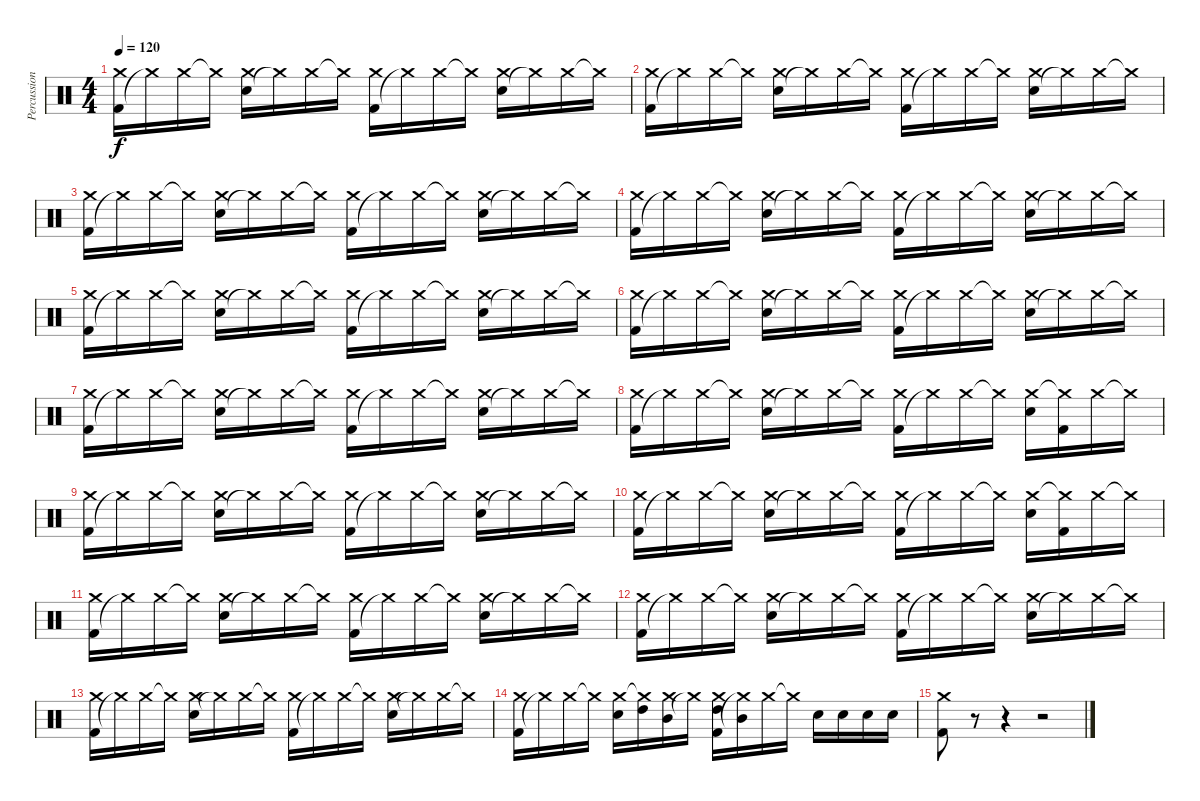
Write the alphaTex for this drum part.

\track ("Percussions" "Percussion") {instrument percussion}
\staff {score}
\articulation defaults
\ts (4 4)
\tempo 120
\clef neutral
\ks c
("Kick (hit) 2" "Crash medium (hit)").16{dy f} "Crash medium (hit)"{t}.16 "Crash medium (hit)".16 "Crash medium (hit)"{t}.16 ("Electric Snare (hit)" "Crash medium (hit)").16 "Crash medium (hit)"{t}.16 "Crash medium (hit)".16 "Crash medium (hit)"{t}.16 ("Kick (hit) 2" "Crash medium (hit)").16 "Crash medium (hit)"{t}.16 "Crash medium (hit)".16 "Crash medium (hit)"{t}.16 ("Electric Snare (hit)" "Crash medium (hit)").16 "Crash medium (hit)"{t}.16 "Crash medium (hit)".16 "Crash medium (hit)"{t}.16 |
("Kick (hit) 2" "Crash medium (hit)").16 "Crash medium (hit)"{t}.16 "Crash medium (hit)".16 "Crash medium (hit)"{t}.16 ("Electric Snare (hit)" "Crash medium (hit)").16 "Crash medium (hit)"{t}.16 "Crash medium (hit)".16 "Crash medium (hit)"{t}.16 ("Kick (hit) 2" "Crash medium (hit)").16 "Crash medium (hit)"{t}.16 "Crash medium (hit)".16 "Crash medium (hit)"{t}.16 ("Electric Snare (hit)" "Crash medium (hit)").16 "Crash medium (hit)"{t}.16 "Crash medium (hit)".16 "Crash medium (hit)"{t}.16 |
("Kick (hit) 2" "Crash medium (hit)").16 "Crash medium (hit)"{t}.16 "Crash medium (hit)".16 "Crash medium (hit)"{t}.16 ("Electric Snare (hit)" "Crash medium (hit)").16 "Crash medium (hit)"{t}.16 "Crash medium (hit)".16 "Crash medium (hit)"{t}.16 ("Kick (hit) 2" "Crash medium (hit)").16 "Crash medium (hit)"{t}.16 "Crash medium (hit)".16 "Crash medium (hit)"{t}.16 ("Electric Snare (hit)" "Crash medium (hit)").16 "Crash medium (hit)"{t}.16 "Crash medium (hit)".16 "Crash medium (hit)"{t}.16 |
("Kick (hit) 2" "Crash medium (hit)").16 "Crash medium (hit)"{t}.16 "Crash medium (hit)".16 "Crash medium (hit)"{t}.16 ("Electric Snare (hit)" "Crash medium (hit)").16 "Crash medium (hit)"{t}.16 "Crash medium (hit)".16 "Crash medium (hit)"{t}.16 ("Kick (hit) 2" "Crash medium (hit)").16 "Crash medium (hit)"{t}.16 "Crash medium (hit)".16 "Crash medium (hit)"{t}.16 ("Electric Snare (hit)" "Crash medium (hit)").16 "Crash medium (hit)"{t}.16 "Crash medium (hit)".16 "Crash medium (hit)"{t}.16 |
("Kick (hit) 2" "Crash medium (hit)").16 "Crash medium (hit)"{t}.16 "Crash medium (hit)".16 "Crash medium (hit)"{t}.16 ("Electric Snare (hit)" "Crash medium (hit)").16 "Crash medium (hit)"{t}.16 "Crash medium (hit)".16 "Crash medium (hit)"{t}.16 ("Kick (hit) 2" "Crash medium (hit)").16 "Crash medium (hit)"{t}.16 "Crash medium (hit)".16 "Crash medium (hit)"{t}.16 ("Electric Snare (hit)" "Crash medium (hit)").16 "Crash medium (hit)"{t}.16 "Crash medium (hit)".16 "Crash medium (hit)"{t}.16 |
("Kick (hit) 2" "Crash medium (hit)").16 "Crash medium (hit)"{t}.16 "Crash medium (hit)".16 "Crash medium (hit)"{t}.16 ("Electric Snare (hit)" "Crash medium (hit)").16 "Crash medium (hit)"{t}.16 "Crash medium (hit)".16 "Crash medium (hit)"{t}.16 ("Kick (hit) 2" "Crash medium (hit)").16 "Crash medium (hit)"{t}.16 "Crash medium (hit)".16 "Crash medium (hit)"{t}.16 ("Electric Snare (hit)" "Crash medium (hit)").16 "Crash medium (hit)"{t}.16 "Crash medium (hit)".16 "Crash medium (hit)"{t}.16 |
("Kick (hit) 2" "Crash medium (hit)").16 "Crash medium (hit)"{t}.16 "Crash medium (hit)".16 "Crash medium (hit)"{t}.16 ("Electric Snare (hit)" "Crash medium (hit)").16 "Crash medium (hit)"{t}.16 "Crash medium (hit)".16 "Crash medium (hit)"{t}.16 ("Kick (hit) 2" "Crash medium (hit)").16 "Crash medium (hit)"{t}.16 "Crash medium (hit)".16 "Crash medium (hit)"{t}.16 ("Electric Snare (hit)" "Crash medium (hit)").16 "Crash medium (hit)"{t}.16 "Crash medium (hit)".16 "Crash medium (hit)"{t}.16 |
("Kick (hit) 2" "Crash medium (hit)").16 "Crash medium (hit)"{t}.16 "Crash medium (hit)".16 "Crash medium (hit)"{t}.16 ("Electric Snare (hit)" "Crash medium (hit)").16 "Crash medium (hit)"{t}.16 "Crash medium (hit)".16 "Crash medium (hit)"{t}.16 ("Kick (hit) 2" "Crash medium (hit)").16 "Crash medium (hit)"{t}.16 "Crash medium (hit)".16 "Crash medium (hit)"{t}.16 ("Electric Snare (hit)" "Crash medium (hit)").16 ("Kick (hit) 2" "Crash medium (hit)"{t}).16 "Crash medium (hit)".16 "Crash medium (hit)"{t}.16 |
("Kick (hit) 2" "Crash medium (hit)").16 "Crash medium (hit)"{t}.16 "Crash medium (hit)".16 "Crash medium (hit)"{t}.16 ("Electric Snare (hit)" "Crash medium (hit)").16 "Crash medium (hit)"{t}.16 "Crash medium (hit)".16 "Crash medium (hit)"{t}.16 ("Kick (hit) 2" "Crash medium (hit)").16 "Crash medium (hit)"{t}.16 "Crash medium (hit)".16 "Crash medium (hit)"{t}.16 ("Electric Snare (hit)" "Crash medium (hit)").16 "Crash medium (hit)"{t}.16 "Crash medium (hit)".16 "Crash medium (hit)"{t}.16 |
("Kick (hit) 2" "Crash medium (hit)").16 "Crash medium (hit)"{t}.16 "Crash medium (hit)".16 "Crash medium (hit)"{t}.16 ("Electric Snare (hit)" "Crash medium (hit)").16 "Crash medium (hit)"{t}.16 "Crash medium (hit)".16 "Crash medium (hit)"{t}.16 ("Kick (hit) 2" "Crash medium (hit)").16 "Crash medium (hit)"{t}.16 "Crash medium (hit)".16 "Crash medium (hit)"{t}.16 ("Electric Snare (hit)" "Crash medium (hit)").16 ("Kick (hit) 2" "Crash medium (hit)"{t}).16 "Crash medium (hit)".16 "Crash medium (hit)"{t}.16 |
("Kick (hit) 2" "Crash medium (hit)").16 "Crash medium (hit)"{t}.16 "Crash medium (hit)".16 "Crash medium (hit)"{t}.16 ("Electric Snare (hit)" "Crash medium (hit)").16 "Crash medium (hit)"{t}.16 "Crash medium (hit)".16 "Crash medium (hit)"{t}.16 ("Kick (hit) 2" "Crash medium (hit)").16 "Crash medium (hit)"{t}.16 "Crash medium (hit)".16 "Crash medium (hit)"{t}.16 ("Electric Snare (hit)" "Crash medium (hit)").16 "Crash medium (hit)"{t}.16 "Crash medium (hit)".16 "Crash medium (hit)"{t}.16 |
("Kick (hit) 2" "Crash medium (hit)").16 "Crash medium (hit)"{t}.16 "Crash medium (hit)".16 "Crash medium (hit)"{t}.16 ("Electric Snare (hit)" "Crash medium (hit)").16 "Crash medium (hit)"{t}.16 "Crash medium (hit)".16 "Crash medium (hit)"{t}.16 ("Kick (hit) 2" "Crash medium (hit)").16 "Crash medium (hit)"{t}.16 "Crash medium (hit)".16 "Crash medium (hit)"{t}.16 ("Electric Snare (hit)" "Crash medium (hit)").16 "Crash medium (hit)"{t}.16 "Crash medium (hit)".16 "Crash medium (hit)"{t}.16 |
("Kick (hit) 2" "Crash medium (hit)").16 "Crash medium (hit)"{t}.16 "Crash medium (hit)".16 "Crash medium (hit)"{t}.16 ("Electric Snare (hit)" "Crash medium (hit)").16 "Crash medium (hit)"{t}.16 "Crash medium (hit)".16 "Crash medium (hit)"{t}.16 ("Kick (hit) 2" "Crash medium (hit)").16 "Crash medium (hit)"{t}.16 "Crash medium (hit)".16 "Crash medium (hit)"{t}.16 ("Electric Snare (hit)" "Crash medium (hit)").16 "Crash medium (hit)"{t}.16 "Crash medium (hit)".16 "Crash medium (hit)"{t}.16 |
("Kick (hit) 2" "Crash medium (hit)").16 "Crash medium (hit)"{t}.16 "Crash medium (hit)".16 "Crash medium (hit)"{t}.16 ("Electric Snare (hit)" "Crash medium (hit)").16 ("High Tom (hit)" "Crash medium (hit)"{t}).16 ("Mid Tom (hit)" "Crash medium (hit)").16 "Crash medium (hit)"{t}.16 ("High Tom (hit)" "Kick (hit) 2" "Crash medium (hit)").16 ("Mid Tom (hit)" "Crash medium (hit)"{t}).16 "Crash medium (hit)".16 "Crash medium (hit)"{t}.16 "Electric Snare (hit)".16 "Electric Snare (hit)".16 "Electric Snare (hit)".16 "Electric Snare (hit)".16 |
("Crash medium (hit)" "Kick (hit) 2").8 r.8 r.4 r.2
